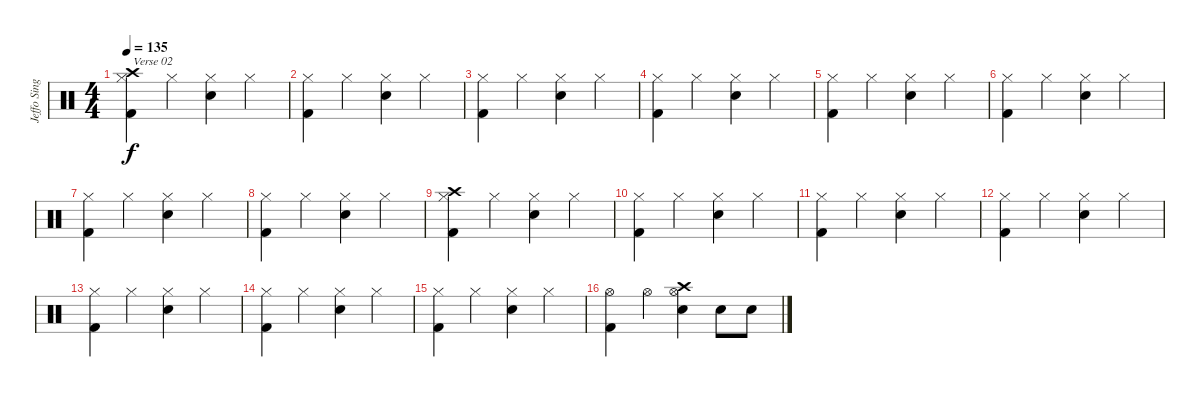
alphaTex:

\track ("Jeffo Singer" "Jeffo Sing") {instrument percussion}
\staff {score}
\articulation defaults
\ts (4 4)
\tempo 135
\clef neutral
\ks c
("Hi-Hat (closed)" "Kick (hit) 2" "Crash high (hit)").4{txt "Verse 02" dy f} "Hi-Hat (closed)".4 ("Hi-Hat (closed)" "Snare (hit) 2").4 "Hi-Hat (closed)".4 |
("Hi-Hat (closed)" "Kick (hit) 2").4 "Hi-Hat (closed)".4 ("Hi-Hat (closed)" "Snare (hit) 2").4 "Hi-Hat (closed)".4 |
("Hi-Hat (closed)" "Kick (hit) 2").4 "Hi-Hat (closed)".4 ("Hi-Hat (closed)" "Snare (hit) 2").4 "Hi-Hat (closed)".4 |
("Hi-Hat (closed)" "Kick (hit) 2").4 "Hi-Hat (closed)".4 ("Hi-Hat (closed)" "Snare (hit) 2").4 "Hi-Hat (closed)".4 |
("Hi-Hat (closed)" "Kick (hit) 2").4 "Hi-Hat (closed)".4 ("Hi-Hat (closed)" "Snare (hit) 2").4 "Hi-Hat (closed)".4 |
("Hi-Hat (closed)" "Kick (hit) 2").4 "Hi-Hat (closed)".4 ("Hi-Hat (closed)" "Snare (hit) 2").4 "Hi-Hat (closed)".4 |
("Hi-Hat (closed)" "Kick (hit) 2").4 "Hi-Hat (closed)".4 ("Hi-Hat (closed)" "Snare (hit) 2").4 "Hi-Hat (closed)".4 |
("Hi-Hat (closed)" "Kick (hit) 2").4 "Hi-Hat (closed)".4 ("Hi-Hat (closed)" "Snare (hit) 2").4 "Hi-Hat (closed)".4 |
("Hi-Hat (closed)" "Kick (hit) 2" "Crash high (hit)").4 "Hi-Hat (closed)".4 ("Hi-Hat (closed)" "Snare (hit) 2").4 "Hi-Hat (closed)".4 |
("Hi-Hat (closed)" "Kick (hit) 2").4 "Hi-Hat (closed)".4 ("Hi-Hat (closed)" "Snare (hit) 2").4 "Hi-Hat (closed)".4 |
("Hi-Hat (closed)" "Kick (hit) 2").4 "Hi-Hat (closed)".4 ("Hi-Hat (closed)" "Snare (hit) 2").4 "Hi-Hat (closed)".4 |
("Hi-Hat (closed)" "Kick (hit) 2").4 "Hi-Hat (closed)".4 ("Hi-Hat (closed)" "Snare (hit) 2").4 "Hi-Hat (closed)".4 |
("Hi-Hat (closed)" "Kick (hit) 2").4 "Hi-Hat (closed)".4 ("Hi-Hat (closed)" "Snare (hit) 2").4 "Hi-Hat (closed)".4 |
("Hi-Hat (closed)" "Kick (hit) 2").4 "Hi-Hat (closed)".4 ("Hi-Hat (closed)" "Snare (hit) 2").4 "Hi-Hat (closed)".4 |
("Hi-Hat (closed)" "Kick (hit) 2").4 "Hi-Hat (closed)".4 ("Hi-Hat (closed)" "Snare (hit) 2").4 "Hi-Hat (closed)".4 |
("Hi-Hat (open)" "Kick (hit) 2").4 "Hi-Hat (open)".4 ("Hi-Hat (open)" "Snare (hit) 2" "Crash high (hit)").4 "Snare (hit) 2".8 "Snare (hit) 2".8
